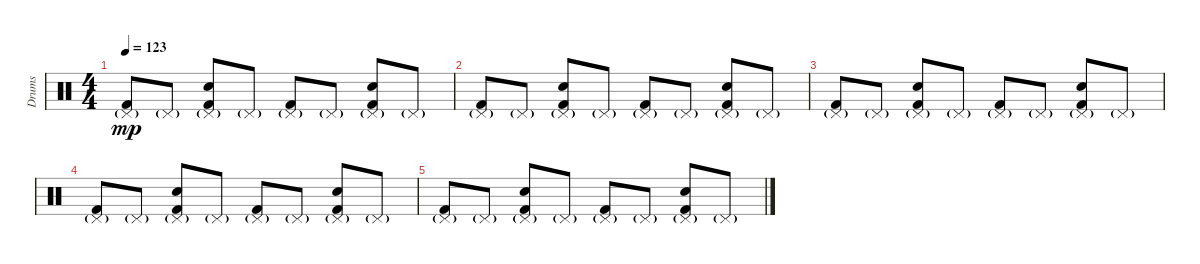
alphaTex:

\track ("Drums" "Drums") {instrument percussion}
\staff {score}
\articulation defaults
\ts (4 4)
\tempo 123
\clef neutral
\ks c
("Pedal Hi-Hat (hit)"{g} "Kick (hit) 2").8{dy mp} "Pedal Hi-Hat (hit)"{g}.8 ("Pedal Hi-Hat (hit)"{g} "Snare (hit) 2" "Kick (hit) 2").8 "Pedal Hi-Hat (hit)"{g}.8 ("Pedal Hi-Hat (hit)"{g} "Kick (hit) 2").8 "Pedal Hi-Hat (hit)"{g}.8 ("Pedal Hi-Hat (hit)"{g} "Snare (hit) 2" "Kick (hit) 2").8 "Pedal Hi-Hat (hit)"{g}.8 |
("Pedal Hi-Hat (hit)"{g} "Kick (hit) 2").8 "Pedal Hi-Hat (hit)"{g}.8 ("Pedal Hi-Hat (hit)"{g} "Snare (hit) 2" "Kick (hit) 2").8 "Pedal Hi-Hat (hit)"{g}.8 ("Pedal Hi-Hat (hit)"{g} "Kick (hit) 2").8 "Pedal Hi-Hat (hit)"{g}.8 ("Pedal Hi-Hat (hit)"{g} "Snare (hit) 2" "Kick (hit) 2").8 "Pedal Hi-Hat (hit)"{g}.8 |
("Pedal Hi-Hat (hit)"{g} "Kick (hit) 2").8 "Pedal Hi-Hat (hit)"{g}.8 ("Pedal Hi-Hat (hit)"{g} "Snare (hit) 2" "Kick (hit) 2").8 "Pedal Hi-Hat (hit)"{g}.8 ("Pedal Hi-Hat (hit)"{g} "Kick (hit) 2").8 "Pedal Hi-Hat (hit)"{g}.8 ("Pedal Hi-Hat (hit)"{g} "Snare (hit) 2" "Kick (hit) 2").8 "Pedal Hi-Hat (hit)"{g}.8 |
("Pedal Hi-Hat (hit)"{g} "Kick (hit) 2").8 "Pedal Hi-Hat (hit)"{g}.8 ("Pedal Hi-Hat (hit)"{g} "Snare (hit) 2" "Kick (hit) 2").8 "Pedal Hi-Hat (hit)"{g}.8 ("Pedal Hi-Hat (hit)"{g} "Kick (hit) 2").8 "Pedal Hi-Hat (hit)"{g}.8 ("Pedal Hi-Hat (hit)"{g} "Snare (hit) 2" "Kick (hit) 2").8 "Pedal Hi-Hat (hit)"{g}.8 |
("Pedal Hi-Hat (hit)"{g} "Kick (hit) 2").8 "Pedal Hi-Hat (hit)"{g}.8 ("Pedal Hi-Hat (hit)"{g} "Snare (hit) 2" "Kick (hit) 2").8 "Pedal Hi-Hat (hit)"{g}.8 ("Pedal Hi-Hat (hit)"{g} "Kick (hit) 2").8 "Pedal Hi-Hat (hit)"{g}.8 ("Pedal Hi-Hat (hit)"{g} "Snare (hit) 2" "Kick (hit) 2").8 "Pedal Hi-Hat (hit)"{g}.8
